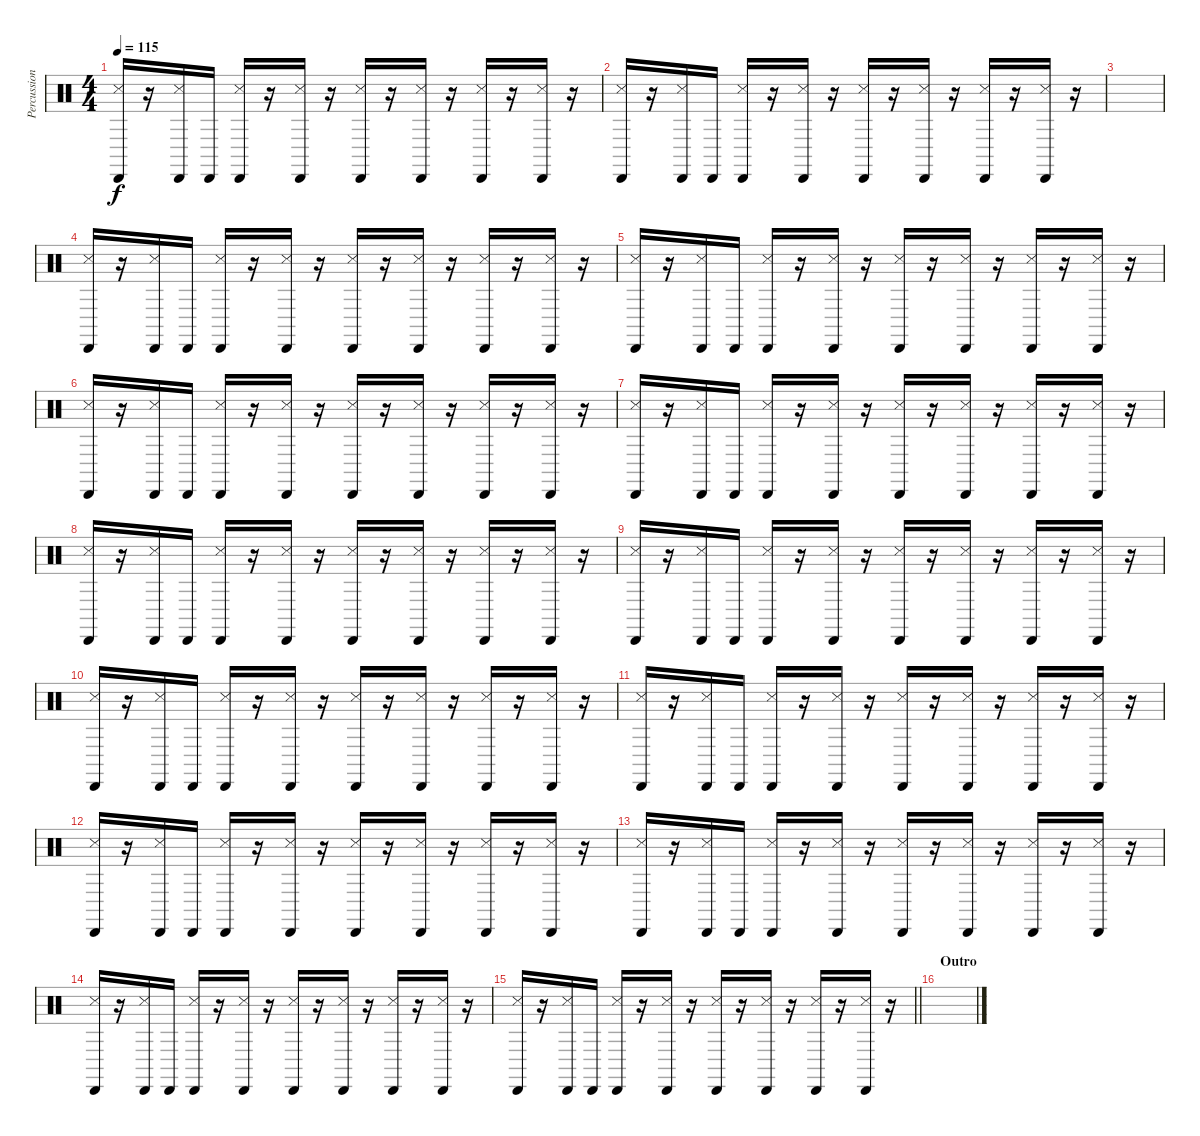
\track ("Percussion" "Percussion") {instrument percussion}
\staff {score}
\articulation defaults
\ts (4 4)
\tempo 115
\clef neutral
\ks c
("Cabasa (hit)" "Snare (side stick) 3").16{dy f} r.16 ("Cabasa (hit)" "Snare (side stick) 3").16 "Cabasa (hit)".16 ("Cabasa (hit)" "Snare (side stick) 3").16 r.16 ("Cabasa (hit)" "Snare (side stick) 3").16 r.16 ("Cabasa (hit)" "Snare (side stick) 3").16 r.16 ("Cabasa (hit)" "Snare (side stick) 3").16 r.16 ("Cabasa (hit)" "Snare (side stick) 3").16 r.16 ("Cabasa (hit)" "Snare (side stick) 3").16 r.16 |
("Cabasa (hit)" "Snare (side stick) 3").16 r.16 ("Cabasa (hit)" "Snare (side stick) 3").16 "Cabasa (hit)".16 ("Cabasa (hit)" "Snare (side stick) 3").16 r.16 ("Cabasa (hit)" "Snare (side stick) 3").16 r.16 ("Cabasa (hit)" "Snare (side stick) 3").16 r.16 ("Cabasa (hit)" "Snare (side stick) 3").16 r.16 ("Cabasa (hit)" "Snare (side stick) 3").16 r.16 ("Cabasa (hit)" "Snare (side stick) 3").16 r.16 |
|
("Cabasa (hit)" "Snare (side stick) 3").16 r.16 ("Cabasa (hit)" "Snare (side stick) 3").16 "Cabasa (hit)".16 ("Cabasa (hit)" "Snare (side stick) 3").16 r.16 ("Cabasa (hit)" "Snare (side stick) 3").16 r.16 ("Cabasa (hit)" "Snare (side stick) 3").16 r.16 ("Cabasa (hit)" "Snare (side stick) 3").16 r.16 ("Cabasa (hit)" "Snare (side stick) 3").16 r.16 ("Cabasa (hit)" "Snare (side stick) 3").16 r.16 |
("Cabasa (hit)" "Snare (side stick) 3").16 r.16 ("Cabasa (hit)" "Snare (side stick) 3").16 "Cabasa (hit)".16 ("Cabasa (hit)" "Snare (side stick) 3").16 r.16 ("Cabasa (hit)" "Snare (side stick) 3").16 r.16 ("Cabasa (hit)" "Snare (side stick) 3").16 r.16 ("Cabasa (hit)" "Snare (side stick) 3").16 r.16 ("Cabasa (hit)" "Snare (side stick) 3").16 r.16 ("Cabasa (hit)" "Snare (side stick) 3").16 r.16 |
("Cabasa (hit)" "Snare (side stick) 3").16 r.16 ("Cabasa (hit)" "Snare (side stick) 3").16 "Cabasa (hit)".16 ("Cabasa (hit)" "Snare (side stick) 3").16 r.16 ("Cabasa (hit)" "Snare (side stick) 3").16 r.16 ("Cabasa (hit)" "Snare (side stick) 3").16 r.16 ("Cabasa (hit)" "Snare (side stick) 3").16 r.16 ("Cabasa (hit)" "Snare (side stick) 3").16 r.16 ("Cabasa (hit)" "Snare (side stick) 3").16 r.16 |
("Cabasa (hit)" "Snare (side stick) 3").16 r.16 ("Cabasa (hit)" "Snare (side stick) 3").16 "Cabasa (hit)".16 ("Cabasa (hit)" "Snare (side stick) 3").16 r.16 ("Cabasa (hit)" "Snare (side stick) 3").16 r.16 ("Cabasa (hit)" "Snare (side stick) 3").16 r.16 ("Cabasa (hit)" "Snare (side stick) 3").16 r.16 ("Cabasa (hit)" "Snare (side stick) 3").16 r.16 ("Cabasa (hit)" "Snare (side stick) 3").16 r.16 |
("Cabasa (hit)" "Snare (side stick) 3").16 r.16 ("Cabasa (hit)" "Snare (side stick) 3").16 "Cabasa (hit)".16 ("Cabasa (hit)" "Snare (side stick) 3").16 r.16 ("Cabasa (hit)" "Snare (side stick) 3").16 r.16 ("Cabasa (hit)" "Snare (side stick) 3").16 r.16 ("Cabasa (hit)" "Snare (side stick) 3").16 r.16 ("Cabasa (hit)" "Snare (side stick) 3").16 r.16 ("Cabasa (hit)" "Snare (side stick) 3").16 r.16 |
("Cabasa (hit)" "Snare (side stick) 3").16 r.16 ("Cabasa (hit)" "Snare (side stick) 3").16 "Cabasa (hit)".16 ("Cabasa (hit)" "Snare (side stick) 3").16 r.16 ("Cabasa (hit)" "Snare (side stick) 3").16 r.16 ("Cabasa (hit)" "Snare (side stick) 3").16 r.16 ("Cabasa (hit)" "Snare (side stick) 3").16 r.16 ("Cabasa (hit)" "Snare (side stick) 3").16 r.16 ("Cabasa (hit)" "Snare (side stick) 3").16 r.16 |
("Cabasa (hit)" "Snare (side stick) 3").16 r.16 ("Cabasa (hit)" "Snare (side stick) 3").16 "Cabasa (hit)".16 ("Cabasa (hit)" "Snare (side stick) 3").16 r.16 ("Cabasa (hit)" "Snare (side stick) 3").16 r.16 ("Cabasa (hit)" "Snare (side stick) 3").16 r.16 ("Cabasa (hit)" "Snare (side stick) 3").16 r.16 ("Cabasa (hit)" "Snare (side stick) 3").16 r.16 ("Cabasa (hit)" "Snare (side stick) 3").16 r.16 |
("Cabasa (hit)" "Snare (side stick) 3").16 r.16 ("Cabasa (hit)" "Snare (side stick) 3").16 "Cabasa (hit)".16 ("Cabasa (hit)" "Snare (side stick) 3").16 r.16 ("Cabasa (hit)" "Snare (side stick) 3").16 r.16 ("Cabasa (hit)" "Snare (side stick) 3").16 r.16 ("Cabasa (hit)" "Snare (side stick) 3").16 r.16 ("Cabasa (hit)" "Snare (side stick) 3").16 r.16 ("Cabasa (hit)" "Snare (side stick) 3").16 r.16 |
("Cabasa (hit)" "Snare (side stick) 3").16 r.16 ("Cabasa (hit)" "Snare (side stick) 3").16 "Cabasa (hit)".16 ("Cabasa (hit)" "Snare (side stick) 3").16 r.16 ("Cabasa (hit)" "Snare (side stick) 3").16 r.16 ("Cabasa (hit)" "Snare (side stick) 3").16 r.16 ("Cabasa (hit)" "Snare (side stick) 3").16 r.16 ("Cabasa (hit)" "Snare (side stick) 3").16 r.16 ("Cabasa (hit)" "Snare (side stick) 3").16 r.16 |
("Cabasa (hit)" "Snare (side stick) 3").16 r.16 ("Cabasa (hit)" "Snare (side stick) 3").16 "Cabasa (hit)".16 ("Cabasa (hit)" "Snare (side stick) 3").16 r.16 ("Cabasa (hit)" "Snare (side stick) 3").16 r.16 ("Cabasa (hit)" "Snare (side stick) 3").16 r.16 ("Cabasa (hit)" "Snare (side stick) 3").16 r.16 ("Cabasa (hit)" "Snare (side stick) 3").16 r.16 ("Cabasa (hit)" "Snare (side stick) 3").16 r.16 |
("Cabasa (hit)" "Snare (side stick) 3").16 r.16 ("Cabasa (hit)" "Snare (side stick) 3").16 "Cabasa (hit)".16 ("Cabasa (hit)" "Snare (side stick) 3").16 r.16 ("Cabasa (hit)" "Snare (side stick) 3").16 r.16 ("Cabasa (hit)" "Snare (side stick) 3").16 r.16 ("Cabasa (hit)" "Snare (side stick) 3").16 r.16 ("Cabasa (hit)" "Snare (side stick) 3").16 r.16 ("Cabasa (hit)" "Snare (side stick) 3").16 r.16 |
\barLineRight lightlight
("Cabasa (hit)" "Snare (side stick) 3").16 r.16 ("Cabasa (hit)" "Snare (side stick) 3").16 "Cabasa (hit)".16 ("Cabasa (hit)" "Snare (side stick) 3").16 r.16 ("Cabasa (hit)" "Snare (side stick) 3").16 r.16 ("Cabasa (hit)" "Snare (side stick) 3").16 r.16 ("Cabasa (hit)" "Snare (side stick) 3").16 r.16 ("Cabasa (hit)" "Snare (side stick) 3").16 r.16 ("Cabasa (hit)" "Snare (side stick) 3").16 r.16 |
\section ("" "Outro")
